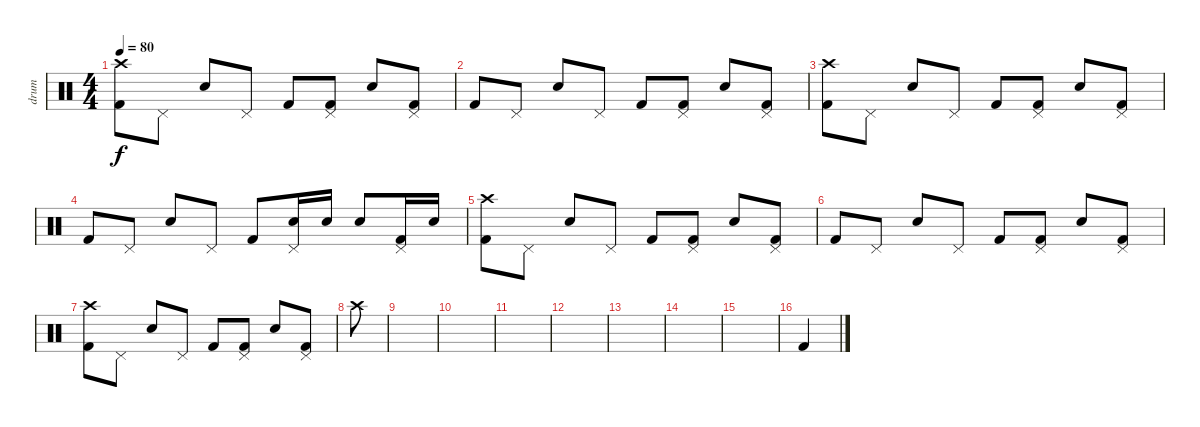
\track ("drum" "drum") {instrument percussion}
\staff {score}
\articulation defaults
\ts (4 4)
\tempo 80
\clef neutral
\ks c
("Crash high (hit)" "Kick (hit) 2").8{dy f} "Pedal Hi-Hat (hit)".8 "Snare (hit) 2".8 "Pedal Hi-Hat (hit)".8 "Kick (hit) 2".8 ("Pedal Hi-Hat (hit)" "Kick (hit) 2").8 "Snare (hit) 2".8 ("Pedal Hi-Hat (hit)" "Kick (hit) 2").8 |
"Kick (hit) 2".8 "Pedal Hi-Hat (hit)".8 "Snare (hit) 2".8 "Pedal Hi-Hat (hit)".8 "Kick (hit) 2".8 ("Pedal Hi-Hat (hit)" "Kick (hit) 2").8 "Snare (hit) 2".8 ("Pedal Hi-Hat (hit)" "Kick (hit) 2").8 |
("Crash high (hit)" "Kick (hit) 2").8 "Pedal Hi-Hat (hit)".8 "Snare (hit) 2".8 "Pedal Hi-Hat (hit)".8 "Kick (hit) 2".8 ("Pedal Hi-Hat (hit)" "Kick (hit) 2").8 "Snare (hit) 2".8 ("Pedal Hi-Hat (hit)" "Kick (hit) 2").8 |
"Kick (hit) 2".8 "Pedal Hi-Hat (hit)".8 "Snare (hit) 2".8 "Pedal Hi-Hat (hit)".8 "Kick (hit) 2".8 ("Pedal Hi-Hat (hit)" "Snare (hit) 2").16 "Snare (hit) 2".16 "Snare (hit) 2".8 ("Pedal Hi-Hat (hit)" "Kick (hit) 2").16 "Snare (hit) 2".16 |
("Crash high (hit)" "Kick (hit) 2").8 "Pedal Hi-Hat (hit)".8 "Snare (hit) 2".8 "Pedal Hi-Hat (hit)".8 "Kick (hit) 2".8 ("Pedal Hi-Hat (hit)" "Kick (hit) 2").8 "Snare (hit) 2".8 ("Pedal Hi-Hat (hit)" "Kick (hit) 2").8 |
"Kick (hit) 2".8 "Pedal Hi-Hat (hit)".8 "Snare (hit) 2".8 "Pedal Hi-Hat (hit)".8 "Kick (hit) 2".8 ("Pedal Hi-Hat (hit)" "Kick (hit) 2").8 "Snare (hit) 2".8 ("Pedal Hi-Hat (hit)" "Kick (hit) 2").8 |
("Crash high (hit)" "Kick (hit) 2").8 "Pedal Hi-Hat (hit)".8 "Snare (hit) 2".8 "Pedal Hi-Hat (hit)".8 "Kick (hit) 2".8 ("Pedal Hi-Hat (hit)" "Kick (hit) 2").8 "Snare (hit) 2".8 ("Pedal Hi-Hat (hit)" "Kick (hit) 2").8 |
"Crash high (hit)".8 |
|
|
|
|
|
|
|
"Kick (hit) 2".4
